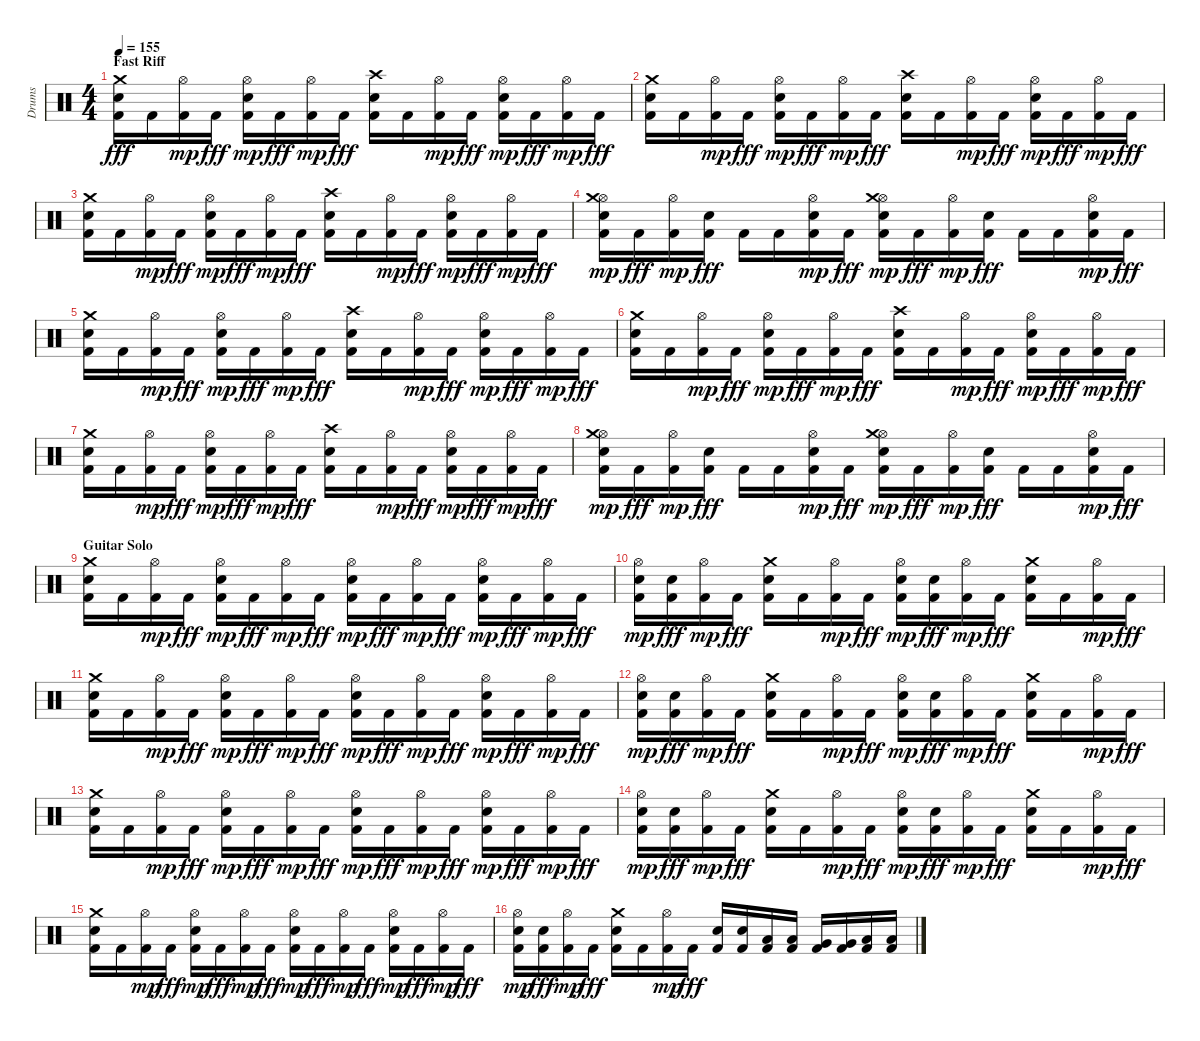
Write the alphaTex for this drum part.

\track ("Drums" "Drums") {instrument percussion}
\staff {score}
\articulation defaults
\ts (4 4)
\section ("" "Fast Riff")
\tempo 155
\clef neutral
\ks c
("Kick (hit) 2" "Snare (hit) 2" "Crash medium (hit)").16{dy fff} "Kick (hit) 2".16 ("Kick (hit) 2" "Hi-Hat (open)").16{dy mp} "Kick (hit) 2".16{dy fff} ("Kick (hit) 2" "Hi-Hat (open)" "Snare (hit) 2").16{dy mp} "Kick (hit) 2".16{dy fff} ("Kick (hit) 2" "Hi-Hat (open)").16{dy mp} "Kick (hit) 2".16{dy fff} ("Kick (hit) 2" "Snare (hit) 2" "Crash high (hit)").16 "Kick (hit) 2".16 ("Kick (hit) 2" "Hi-Hat (open)").16{dy mp} "Kick (hit) 2".16{dy fff} ("Kick (hit) 2" "Hi-Hat (open)" "Snare (hit) 2").16{dy mp} "Kick (hit) 2".16{dy fff} ("Kick (hit) 2" "Hi-Hat (open)").16{dy mp} "Kick (hit) 2".16{dy fff} |
("Kick (hit) 2" "Snare (hit) 2" "Crash medium (hit)").16 "Kick (hit) 2".16 ("Kick (hit) 2" "Hi-Hat (open)").16{dy mp} "Kick (hit) 2".16{dy fff} ("Kick (hit) 2" "Hi-Hat (open)" "Snare (hit) 2").16{dy mp} "Kick (hit) 2".16{dy fff} ("Kick (hit) 2" "Hi-Hat (open)").16{dy mp} "Kick (hit) 2".16{dy fff} ("Kick (hit) 2" "Snare (hit) 2" "Crash high (hit)").16 "Kick (hit) 2".16 ("Kick (hit) 2" "Hi-Hat (open)").16{dy mp} "Kick (hit) 2".16{dy fff} ("Kick (hit) 2" "Hi-Hat (open)" "Snare (hit) 2").16{dy mp} "Kick (hit) 2".16{dy fff} ("Kick (hit) 2" "Hi-Hat (open)").16{dy mp} "Kick (hit) 2".16{dy fff} |
("Kick (hit) 2" "Snare (hit) 2" "Crash medium (hit)").16 "Kick (hit) 2".16 ("Kick (hit) 2" "Hi-Hat (open)").16{dy mp} "Kick (hit) 2".16{dy fff} ("Kick (hit) 2" "Hi-Hat (open)" "Snare (hit) 2").16{dy mp} "Kick (hit) 2".16{dy fff} ("Kick (hit) 2" "Hi-Hat (open)").16{dy mp} "Kick (hit) 2".16{dy fff} ("Kick (hit) 2" "Snare (hit) 2" "Crash high (hit)").16 "Kick (hit) 2".16 ("Kick (hit) 2" "Hi-Hat (open)").16{dy mp} "Kick (hit) 2".16{dy fff} ("Kick (hit) 2" "Hi-Hat (open)" "Snare (hit) 2").16{dy mp} "Kick (hit) 2".16{dy fff} ("Kick (hit) 2" "Hi-Hat (open)").16{dy mp} "Kick (hit) 2".16{dy fff} |
("Kick (hit) 2" "Hi-Hat (open)" "Snare (hit) 2" "Crash medium (hit)").16{dy mp} "Kick (hit) 2".16{dy fff} ("Kick (hit) 2" "Hi-Hat (open)").16{dy mp} ("Kick (hit) 2" "Snare (hit) 2").16{dy fff} "Kick (hit) 2".16 "Kick (hit) 2".16 ("Kick (hit) 2" "Hi-Hat (open)" "Snare (hit) 2").16{dy mp} "Kick (hit) 2".16{dy fff} ("Kick (hit) 2" "Hi-Hat (open)" "Snare (hit) 2" "Crash medium (hit)").16{dy mp} "Kick (hit) 2".16{dy fff} ("Kick (hit) 2" "Hi-Hat (open)").16{dy mp} ("Kick (hit) 2" "Snare (hit) 2").16{dy fff} "Kick (hit) 2".16 "Kick (hit) 2".16 ("Kick (hit) 2" "Hi-Hat (open)" "Snare (hit) 2").16{dy mp} "Kick (hit) 2".16{dy fff} |
("Kick (hit) 2" "Snare (hit) 2" "Crash medium (hit)").16 "Kick (hit) 2".16 ("Kick (hit) 2" "Hi-Hat (open)").16{dy mp} "Kick (hit) 2".16{dy fff} ("Kick (hit) 2" "Hi-Hat (open)" "Snare (hit) 2").16{dy mp} "Kick (hit) 2".16{dy fff} ("Kick (hit) 2" "Hi-Hat (open)").16{dy mp} "Kick (hit) 2".16{dy fff} ("Kick (hit) 2" "Snare (hit) 2" "Crash high (hit)").16 "Kick (hit) 2".16 ("Kick (hit) 2" "Hi-Hat (open)").16{dy mp} "Kick (hit) 2".16{dy fff} ("Kick (hit) 2" "Hi-Hat (open)" "Snare (hit) 2").16{dy mp} "Kick (hit) 2".16{dy fff} ("Kick (hit) 2" "Hi-Hat (open)").16{dy mp} "Kick (hit) 2".16{dy fff} |
("Kick (hit) 2" "Snare (hit) 2" "Crash medium (hit)").16 "Kick (hit) 2".16 ("Kick (hit) 2" "Hi-Hat (open)").16{dy mp} "Kick (hit) 2".16{dy fff} ("Kick (hit) 2" "Hi-Hat (open)" "Snare (hit) 2").16{dy mp} "Kick (hit) 2".16{dy fff} ("Kick (hit) 2" "Hi-Hat (open)").16{dy mp} "Kick (hit) 2".16{dy fff} ("Kick (hit) 2" "Snare (hit) 2" "Crash high (hit)").16 "Kick (hit) 2".16 ("Kick (hit) 2" "Hi-Hat (open)").16{dy mp} "Kick (hit) 2".16{dy fff} ("Kick (hit) 2" "Hi-Hat (open)" "Snare (hit) 2").16{dy mp} "Kick (hit) 2".16{dy fff} ("Kick (hit) 2" "Hi-Hat (open)").16{dy mp} "Kick (hit) 2".16{dy fff} |
("Kick (hit) 2" "Snare (hit) 2" "Crash medium (hit)").16 "Kick (hit) 2".16 ("Kick (hit) 2" "Hi-Hat (open)").16{dy mp} "Kick (hit) 2".16{dy fff} ("Kick (hit) 2" "Hi-Hat (open)" "Snare (hit) 2").16{dy mp} "Kick (hit) 2".16{dy fff} ("Kick (hit) 2" "Hi-Hat (open)").16{dy mp} "Kick (hit) 2".16{dy fff} ("Kick (hit) 2" "Snare (hit) 2" "Crash high (hit)").16 "Kick (hit) 2".16 ("Kick (hit) 2" "Hi-Hat (open)").16{dy mp} "Kick (hit) 2".16{dy fff} ("Kick (hit) 2" "Hi-Hat (open)" "Snare (hit) 2").16{dy mp} "Kick (hit) 2".16{dy fff} ("Kick (hit) 2" "Hi-Hat (open)").16{dy mp} "Kick (hit) 2".16{dy fff} |
("Kick (hit) 2" "Hi-Hat (open)" "Snare (hit) 2" "Crash medium (hit)").16{dy mp} "Kick (hit) 2".16{dy fff} ("Kick (hit) 2" "Hi-Hat (open)").16{dy mp} ("Kick (hit) 2" "Snare (hit) 2").16{dy fff} "Kick (hit) 2".16 "Kick (hit) 2".16 ("Kick (hit) 2" "Hi-Hat (open)" "Snare (hit) 2").16{dy mp} "Kick (hit) 2".16{dy fff} ("Kick (hit) 2" "Hi-Hat (open)" "Snare (hit) 2" "Crash medium (hit)").16{dy mp} "Kick (hit) 2".16{dy fff} ("Kick (hit) 2" "Hi-Hat (open)").16{dy mp} ("Kick (hit) 2" "Snare (hit) 2").16{dy fff} "Kick (hit) 2".16 "Kick (hit) 2".16 ("Kick (hit) 2" "Hi-Hat (open)" "Snare (hit) 2").16{dy mp} "Kick (hit) 2".16{dy fff} |
\section ("" "Guitar Solo")
("Kick (hit) 2" "Snare (hit) 2" "Crash medium (hit)").16 "Kick (hit) 2".16 ("Kick (hit) 2" "Hi-Hat (open)").16{dy mp} "Kick (hit) 2".16{dy fff} ("Kick (hit) 2" "Hi-Hat (open)" "Snare (hit) 2").16{dy mp} "Kick (hit) 2".16{dy fff} ("Kick (hit) 2" "Hi-Hat (open)").16{dy mp} "Kick (hit) 2".16{dy fff} ("Kick (hit) 2" "Hi-Hat (open)" "Snare (hit) 2").16{dy mp} "Kick (hit) 2".16{dy fff} ("Kick (hit) 2" "Hi-Hat (open)").16{dy mp} "Kick (hit) 2".16{dy fff} ("Kick (hit) 2" "Hi-Hat (open)" "Snare (hit) 2").16{dy mp} "Kick (hit) 2".16{dy fff} ("Kick (hit) 2" "Hi-Hat (open)").16{dy mp} "Kick (hit) 2".16{dy fff} |
("Kick (hit) 2" "Hi-Hat (open)" "Snare (hit) 2").16{dy mp} ("Kick (hit) 2" "Snare (hit) 2").16{dy fff} ("Kick (hit) 2" "Hi-Hat (open)").16{dy mp} "Kick (hit) 2".16{dy fff} ("Kick (hit) 2" "Snare (hit) 2" "Crash medium (hit)").16 "Kick (hit) 2".16 ("Kick (hit) 2" "Hi-Hat (open)").16{dy mp} "Kick (hit) 2".16{dy fff} ("Kick (hit) 2" "Hi-Hat (open)" "Snare (hit) 2").16{dy mp} ("Kick (hit) 2" "Snare (hit) 2").16{dy fff} ("Kick (hit) 2" "Hi-Hat (open)").16{dy mp} "Kick (hit) 2".16{dy fff} ("Kick (hit) 2" "Snare (hit) 2" "Crash medium (hit)").16 "Kick (hit) 2".16 ("Kick (hit) 2" "Hi-Hat (open)").16{dy mp} "Kick (hit) 2".16{dy fff} |
("Kick (hit) 2" "Snare (hit) 2" "Crash medium (hit)").16 "Kick (hit) 2".16 ("Kick (hit) 2" "Hi-Hat (open)").16{dy mp} "Kick (hit) 2".16{dy fff} ("Kick (hit) 2" "Hi-Hat (open)" "Snare (hit) 2").16{dy mp} "Kick (hit) 2".16{dy fff} ("Kick (hit) 2" "Hi-Hat (open)").16{dy mp} "Kick (hit) 2".16{dy fff} ("Kick (hit) 2" "Hi-Hat (open)" "Snare (hit) 2").16{dy mp} "Kick (hit) 2".16{dy fff} ("Kick (hit) 2" "Hi-Hat (open)").16{dy mp} "Kick (hit) 2".16{dy fff} ("Kick (hit) 2" "Hi-Hat (open)" "Snare (hit) 2").16{dy mp} "Kick (hit) 2".16{dy fff} ("Kick (hit) 2" "Hi-Hat (open)").16{dy mp} "Kick (hit) 2".16{dy fff} |
("Kick (hit) 2" "Hi-Hat (open)" "Snare (hit) 2").16{dy mp} ("Kick (hit) 2" "Snare (hit) 2").16{dy fff} ("Kick (hit) 2" "Hi-Hat (open)").16{dy mp} "Kick (hit) 2".16{dy fff} ("Kick (hit) 2" "Snare (hit) 2" "Crash medium (hit)").16 "Kick (hit) 2".16 ("Kick (hit) 2" "Hi-Hat (open)").16{dy mp} "Kick (hit) 2".16{dy fff} ("Kick (hit) 2" "Hi-Hat (open)" "Snare (hit) 2").16{dy mp} ("Kick (hit) 2" "Snare (hit) 2").16{dy fff} ("Kick (hit) 2" "Hi-Hat (open)").16{dy mp} "Kick (hit) 2".16{dy fff} ("Kick (hit) 2" "Snare (hit) 2" "Crash medium (hit)").16 "Kick (hit) 2".16 ("Kick (hit) 2" "Hi-Hat (open)").16{dy mp} "Kick (hit) 2".16{dy fff} |
("Kick (hit) 2" "Snare (hit) 2" "Crash medium (hit)").16 "Kick (hit) 2".16 ("Kick (hit) 2" "Hi-Hat (open)").16{dy mp} "Kick (hit) 2".16{dy fff} ("Kick (hit) 2" "Hi-Hat (open)" "Snare (hit) 2").16{dy mp} "Kick (hit) 2".16{dy fff} ("Kick (hit) 2" "Hi-Hat (open)").16{dy mp} "Kick (hit) 2".16{dy fff} ("Kick (hit) 2" "Hi-Hat (open)" "Snare (hit) 2").16{dy mp} "Kick (hit) 2".16{dy fff} ("Kick (hit) 2" "Hi-Hat (open)").16{dy mp} "Kick (hit) 2".16{dy fff} ("Kick (hit) 2" "Hi-Hat (open)" "Snare (hit) 2").16{dy mp} "Kick (hit) 2".16{dy fff} ("Kick (hit) 2" "Hi-Hat (open)").16{dy mp} "Kick (hit) 2".16{dy fff} |
("Kick (hit) 2" "Hi-Hat (open)" "Snare (hit) 2").16{dy mp} ("Kick (hit) 2" "Snare (hit) 2").16{dy fff} ("Kick (hit) 2" "Hi-Hat (open)").16{dy mp} "Kick (hit) 2".16{dy fff} ("Kick (hit) 2" "Snare (hit) 2" "Crash medium (hit)").16 "Kick (hit) 2".16 ("Kick (hit) 2" "Hi-Hat (open)").16{dy mp} "Kick (hit) 2".16{dy fff} ("Kick (hit) 2" "Hi-Hat (open)" "Snare (hit) 2").16{dy mp} ("Kick (hit) 2" "Snare (hit) 2").16{dy fff} ("Kick (hit) 2" "Hi-Hat (open)").16{dy mp} "Kick (hit) 2".16{dy fff} ("Kick (hit) 2" "Snare (hit) 2" "Crash medium (hit)").16 "Kick (hit) 2".16 ("Kick (hit) 2" "Hi-Hat (open)").16{dy mp} "Kick (hit) 2".16{dy fff} |
("Kick (hit) 2" "Snare (hit) 2" "Crash medium (hit)").16 "Kick (hit) 2".16 ("Kick (hit) 2" "Hi-Hat (open)").16{dy mp} "Kick (hit) 2".16{dy fff} ("Kick (hit) 2" "Hi-Hat (open)" "Snare (hit) 2").16{dy mp} "Kick (hit) 2".16{dy fff} ("Kick (hit) 2" "Hi-Hat (open)").16{dy mp} "Kick (hit) 2".16{dy fff} ("Kick (hit) 2" "Hi-Hat (open)" "Snare (hit) 2").16{dy mp} "Kick (hit) 2".16{dy fff} ("Kick (hit) 2" "Hi-Hat (open)").16{dy mp} "Kick (hit) 2".16{dy fff} ("Kick (hit) 2" "Hi-Hat (open)" "Snare (hit) 2").16{dy mp} "Kick (hit) 2".16{dy fff} ("Kick (hit) 2" "Hi-Hat (open)").16{dy mp} "Kick (hit) 2".16{dy fff} |
("Kick (hit) 2" "Hi-Hat (open)" "Snare (hit) 2").16{dy mp} ("Kick (hit) 2" "Snare (hit) 2").16{dy fff} ("Kick (hit) 2" "Hi-Hat (open)").16{dy mp} "Kick (hit) 2".16{dy fff} ("Kick (hit) 2" "Snare (hit) 2" "Crash medium (hit)").16 "Kick (hit) 2".16 ("Kick (hit) 2" "Hi-Hat (open)").16{dy mp} "Kick (hit) 2".16{dy fff} ("Kick (hit) 2" "Snare (hit) 2").16 ("Kick (hit) 2" "Snare (hit) 2").16 ("Kick (hit) 2" "Low Tom (hit)").16 ("Kick (hit) 2" "Low Tom (hit)").16 ("Kick (hit) 2" "Very Low Tom (hit)").16 ("Kick (hit) 2" "Very Low Tom (hit)").16 ("Kick (hit) 2" "Low Floor Tom (hit)").16 ("Kick (hit) 2" "Low Floor Tom (hit)").16
